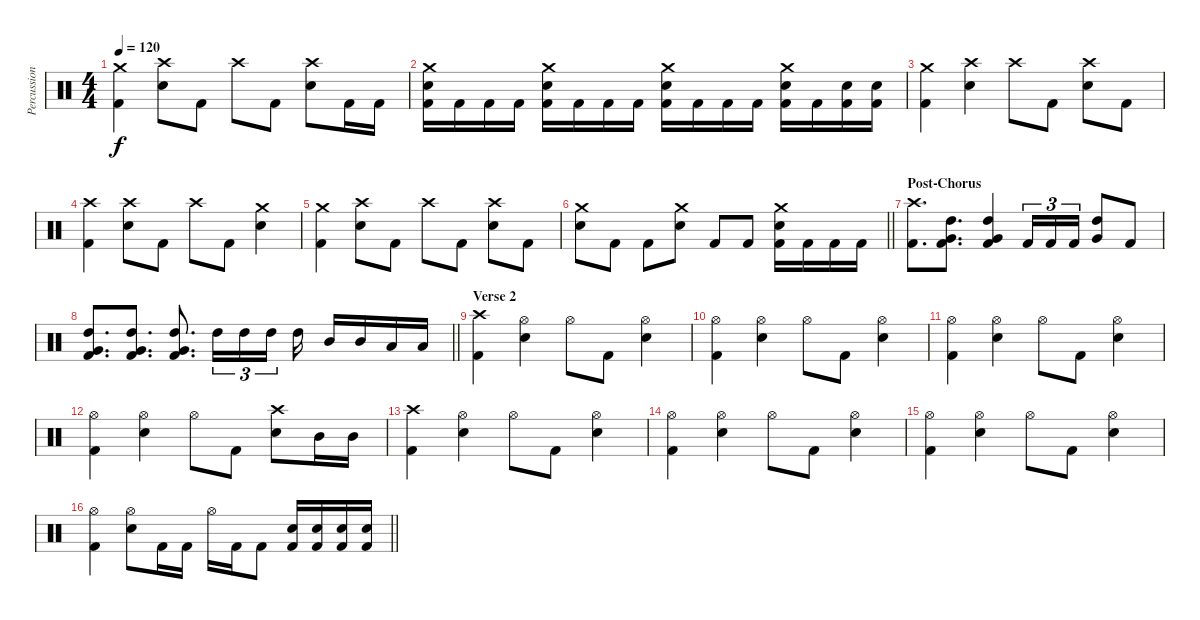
\track ("Percussion" "Percussion") {instrument percussion}
\staff {score}
\articulation defaults
\ts (4 4)
\tempo 120
\clef neutral
\ks c
("Crash medium (hit)" "Kick (hit) 2").4{dy f} ("Crash high (hit)" "Snare (hit) 2").8 "Kick (hit) 2".8 "Crash high (hit)".8 "Kick (hit) 2".8 ("Crash high (hit)" "Snare (hit) 2").8 "Kick (hit) 2".16 "Kick (hit) 2".16 |
("Crash medium (hit)" "Snare (hit) 2" "Kick (hit) 2").16 "Kick (hit) 2".16 "Kick (hit) 2".16 "Kick (hit) 2".16 ("Crash medium (hit)" "Snare (hit) 2" "Kick (hit) 2").16 "Kick (hit) 2".16 "Kick (hit) 2".16 "Kick (hit) 2".16 ("Crash medium (hit)" "Snare (hit) 2" "Kick (hit) 2").16 "Kick (hit) 2".16 "Kick (hit) 2".16 "Kick (hit) 2".16 ("Crash medium (hit)" "Snare (hit) 2" "Kick (hit) 2").16 "Kick (hit) 2".16 ("Snare (hit) 2" "Kick (hit) 2").16 ("Snare (hit) 2" "Kick (hit) 2").16 |
("Crash medium (hit)" "Kick (hit) 2").4 ("Crash high (hit)" "Snare (hit) 2").4 "Crash high (hit)".8 "Kick (hit) 2".8 ("Crash high (hit)" "Snare (hit) 2").8 "Kick (hit) 2".8 |
("Crash high (hit)" "Kick (hit) 2").4 ("Crash high (hit)" "Snare (hit) 2").8 "Kick (hit) 2".8 "Crash high (hit)".8 "Kick (hit) 2".8 ("Crash medium (hit)" "Snare (hit) 2").4 |
("Crash medium (hit)" "Kick (hit) 2").4 ("Crash high (hit)" "Snare (hit) 2").8 "Kick (hit) 2".8 "Crash high (hit)".8 "Kick (hit) 2".8 ("Crash high (hit)" "Snare (hit) 2").8 "Kick (hit) 2".8 |
\barLineRight lightlight
("Crash medium (hit)" "Snare (hit) 2").8 "Kick (hit) 2".8 "Kick (hit) 2".8 ("Crash medium (hit)" "Snare (hit) 2").8 "Kick (hit) 2".8 "Kick (hit) 2".8 ("Crash medium (hit)" "Snare (hit) 2" "Kick (hit) 2").16 "Kick (hit) 2".16 "Kick (hit) 2".16 "Kick (hit) 2".16 |
\section ("" "Post-Chorus")
("Crash high (hit)" "Kick (hit) 2").8{d} ("High Tom (hit)" "Very Low Tom (hit)" "Kick (hit) 2").8{d} ("High Tom (hit)" "Very Low Tom (hit)" "Kick (hit) 2").4 "Kick (hit) 2".16{tu (3 2)} "Kick (hit) 2".16{tu (3 2)} "Kick (hit) 2".16{tu (3 2)} ("High Tom (hit)" "Very Low Tom (hit)").8 "Kick (hit) 2".8 |
\barLineRight lightlight
("High Tom (hit)" "Very Low Tom (hit)" "Kick (hit) 2").8{d} ("High Tom (hit)" "Very Low Tom (hit)" "Kick (hit) 2").8{d} ("High Tom (hit)" "Very Low Tom (hit)" "Kick (hit) 2").8{d} "High Tom (hit)".16{tu (3 2)} "High Tom (hit)".16{tu (3 2)} "High Tom (hit)".16{tu (3 2) beam splitsecondary} "High Tom (hit)".16 "Mid Tom (hit)".16 "Mid Tom (hit)".16 "Low Tom (hit)".16 "Low Tom (hit)".16 |
\section ("" "Verse 2")
("Crash high (hit)" "Kick (hit) 2").4 ("Hi-Hat (open)" "Snare (hit) 2").4 "Hi-Hat (open)".8 "Kick (hit) 2".8 ("Hi-Hat (open)" "Snare (hit) 2").4 |
("Hi-Hat (open)" "Kick (hit) 2").4 ("Hi-Hat (open)" "Snare (hit) 2").4 "Hi-Hat (open)".8 "Kick (hit) 2".8 ("Hi-Hat (open)" "Snare (hit) 2").4 |
("Hi-Hat (open)" "Kick (hit) 2").4 ("Hi-Hat (open)" "Snare (hit) 2").4 "Hi-Hat (open)".8 "Kick (hit) 2".8 ("Hi-Hat (open)" "Snare (hit) 2").4 |
("Hi-Hat (open)" "Kick (hit) 2").4 ("Hi-Hat (open)" "Snare (hit) 2").4 "Hi-Hat (open)".8 "Kick (hit) 2".8 ("Crash high (hit)" "Snare (hit) 2").8 "Mid Tom (hit)".16 "Mid Tom (hit)".16 |
("Crash high (hit)" "Kick (hit) 2").4 ("Hi-Hat (open)" "Snare (hit) 2").4 "Hi-Hat (open)".8 "Kick (hit) 2".8 ("Hi-Hat (open)" "Snare (hit) 2").4 |
("Hi-Hat (open)" "Kick (hit) 2").4 ("Hi-Hat (open)" "Snare (hit) 2").4 "Hi-Hat (open)".8 "Kick (hit) 2".8 ("Hi-Hat (open)" "Snare (hit) 2").4 |
("Hi-Hat (open)" "Kick (hit) 2").4 ("Hi-Hat (open)" "Snare (hit) 2").4 "Hi-Hat (open)".8 "Kick (hit) 2".8 ("Hi-Hat (open)" "Snare (hit) 2").4 |
\barLineRight lightlight
("Hi-Hat (open)" "Kick (hit) 2").4 ("Hi-Hat (open)" "Snare (hit) 2").8 "Kick (hit) 2".16 "Kick (hit) 2".16 "Hi-Hat (open)".16 "Kick (hit) 2".16 "Kick (hit) 2".8 ("Snare (hit) 2" "Kick (hit) 2").16 ("Snare (hit) 2" "Kick (hit) 2").16 ("Snare (hit) 2" "Kick (hit) 2").16 ("Snare (hit) 2" "Kick (hit) 2").16
